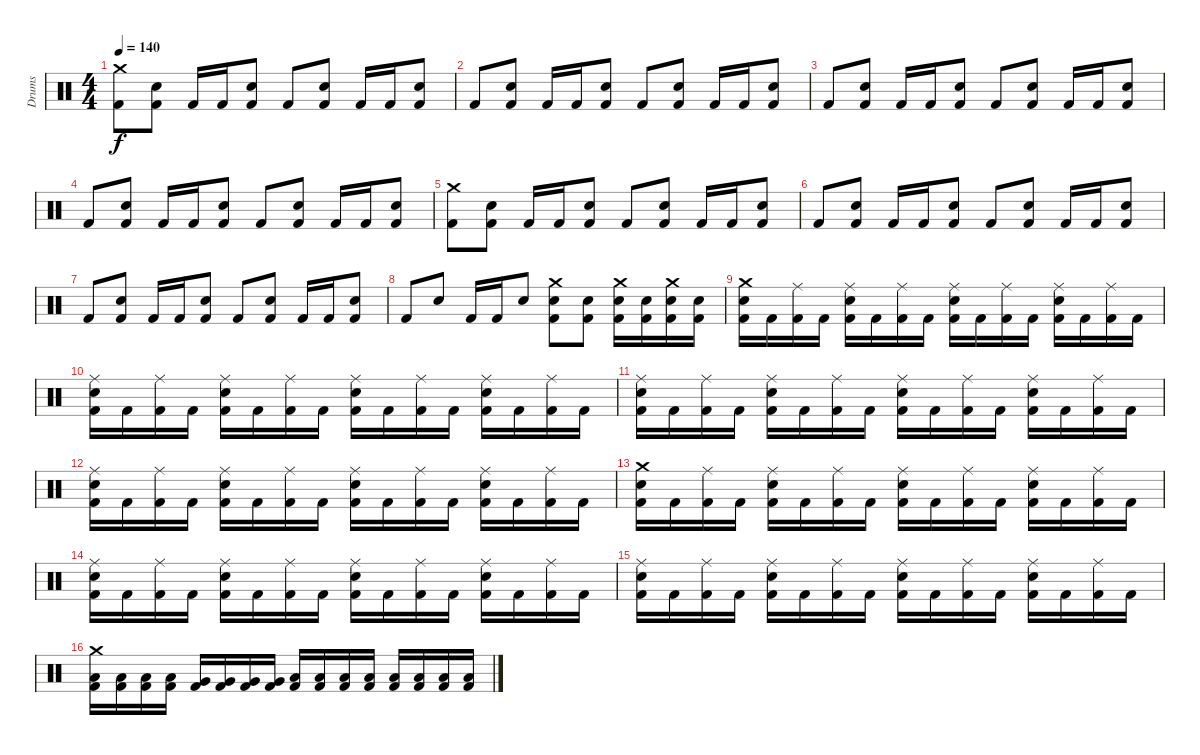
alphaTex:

\track ("Drums" "Drums") {instrument percussion}
\staff {score}
\articulation defaults
\ts (4 4)
\tempo 140
\clef neutral
\ks c
("Crash medium (hit)" "Kick (hit) 2").8{dy f} ("Electric Snare (hit)" "Kick (hit) 2").8 "Kick (hit) 2".16 "Kick (hit) 2".16 ("Electric Snare (hit)" "Kick (hit) 2").8 "Kick (hit) 2".8 ("Electric Snare (hit)" "Kick (hit) 2").8 "Kick (hit) 2".16 "Kick (hit) 2".16 ("Electric Snare (hit)" "Kick (hit) 2").8 |
"Kick (hit) 2".8 ("Electric Snare (hit)" "Kick (hit) 2").8 "Kick (hit) 2".16 "Kick (hit) 2".16 ("Electric Snare (hit)" "Kick (hit) 2").8 "Kick (hit) 2".8 ("Electric Snare (hit)" "Kick (hit) 2").8 "Kick (hit) 2".16 "Kick (hit) 2".16 ("Electric Snare (hit)" "Kick (hit) 2").8 |
"Kick (hit) 2".8 ("Electric Snare (hit)" "Kick (hit) 2").8 "Kick (hit) 2".16 "Kick (hit) 2".16 ("Electric Snare (hit)" "Kick (hit) 2").8 "Kick (hit) 2".8 ("Electric Snare (hit)" "Kick (hit) 2").8 "Kick (hit) 2".16 "Kick (hit) 2".16 ("Electric Snare (hit)" "Kick (hit) 2").8 |
"Kick (hit) 2".8 ("Electric Snare (hit)" "Kick (hit) 2").8 "Kick (hit) 2".16 "Kick (hit) 2".16 ("Electric Snare (hit)" "Kick (hit) 2").8 "Kick (hit) 2".8 ("Electric Snare (hit)" "Kick (hit) 2").8 "Kick (hit) 2".16 "Kick (hit) 2".16 ("Electric Snare (hit)" "Kick (hit) 2").8 |
("Crash medium (hit)" "Kick (hit) 2").8 ("Electric Snare (hit)" "Kick (hit) 2").8 "Kick (hit) 2".16 "Kick (hit) 2".16 ("Electric Snare (hit)" "Kick (hit) 2").8 "Kick (hit) 2".8 ("Electric Snare (hit)" "Kick (hit) 2").8 "Kick (hit) 2".16 "Kick (hit) 2".16 ("Electric Snare (hit)" "Kick (hit) 2").8 |
"Kick (hit) 2".8 ("Electric Snare (hit)" "Kick (hit) 2").8 "Kick (hit) 2".16 "Kick (hit) 2".16 ("Electric Snare (hit)" "Kick (hit) 2").8 "Kick (hit) 2".8 ("Electric Snare (hit)" "Kick (hit) 2").8 "Kick (hit) 2".16 "Kick (hit) 2".16 ("Electric Snare (hit)" "Kick (hit) 2").8 |
"Kick (hit) 2".8 ("Electric Snare (hit)" "Kick (hit) 2").8 "Kick (hit) 2".16 "Kick (hit) 2".16 ("Electric Snare (hit)" "Kick (hit) 2").8 "Kick (hit) 2".8 ("Electric Snare (hit)" "Kick (hit) 2").8 "Kick (hit) 2".16 "Kick (hit) 2".16 ("Electric Snare (hit)" "Kick (hit) 2").8 |
"Kick (hit) 2".8 "Electric Snare (hit)".8 "Kick (hit) 2".16 "Kick (hit) 2".16 "Electric Snare (hit)".8 ("Crash medium (hit)" "Electric Snare (hit)" "Kick (hit) 2").8 ("Electric Snare (hit)" "Kick (hit) 2").8 ("Crash medium (hit)" "Electric Snare (hit)" "Kick (hit) 2").16 ("Electric Snare (hit)" "Kick (hit) 2").16 ("Crash medium (hit)" "Electric Snare (hit)" "Kick (hit) 2").16 ("Electric Snare (hit)" "Kick (hit) 2").16 |
("Crash medium (hit)" "Electric Snare (hit)" "Kick (hit) 2").16 "Kick (hit) 2".16 ("Ride (middle)" "Kick (hit) 2").16 "Kick (hit) 2".16 ("Ride (middle)" "Electric Snare (hit)" "Kick (hit) 2").16 "Kick (hit) 2".16 ("Ride (middle)" "Kick (hit) 2").16 "Kick (hit) 2".16 ("Ride (middle)" "Electric Snare (hit)" "Kick (hit) 2").16 "Kick (hit) 2".16 ("Ride (middle)" "Kick (hit) 2").16 "Kick (hit) 2".16 ("Ride (middle)" "Electric Snare (hit)" "Kick (hit) 2").16 "Kick (hit) 2".16 ("Ride (middle)" "Kick (hit) 2").16 "Kick (hit) 2".16 |
("Ride (middle)" "Electric Snare (hit)" "Kick (hit) 2").16 "Kick (hit) 2".16 ("Ride (middle)" "Kick (hit) 2").16 "Kick (hit) 2".16 ("Ride (middle)" "Electric Snare (hit)" "Kick (hit) 2").16 "Kick (hit) 2".16 ("Ride (middle)" "Kick (hit) 2").16 "Kick (hit) 2".16 ("Ride (middle)" "Electric Snare (hit)" "Kick (hit) 2").16 "Kick (hit) 2".16 ("Ride (middle)" "Kick (hit) 2").16 "Kick (hit) 2".16 ("Ride (middle)" "Electric Snare (hit)" "Kick (hit) 2").16 "Kick (hit) 2".16 ("Ride (middle)" "Kick (hit) 2").16 "Kick (hit) 2".16 |
("Ride (middle)" "Electric Snare (hit)" "Kick (hit) 2").16 "Kick (hit) 2".16 ("Ride (middle)" "Kick (hit) 2").16 "Kick (hit) 2".16 ("Ride (middle)" "Electric Snare (hit)" "Kick (hit) 2").16 "Kick (hit) 2".16 ("Ride (middle)" "Kick (hit) 2").16 "Kick (hit) 2".16 ("Ride (middle)" "Electric Snare (hit)" "Kick (hit) 2").16 "Kick (hit) 2".16 ("Ride (middle)" "Kick (hit) 2").16 "Kick (hit) 2".16 ("Ride (middle)" "Electric Snare (hit)" "Kick (hit) 2").16 "Kick (hit) 2".16 ("Ride (middle)" "Kick (hit) 2").16 "Kick (hit) 2".16 |
("Ride (middle)" "Electric Snare (hit)" "Kick (hit) 2").16 "Kick (hit) 2".16 ("Ride (middle)" "Kick (hit) 2").16 "Kick (hit) 2".16 ("Ride (middle)" "Electric Snare (hit)" "Kick (hit) 2").16 "Kick (hit) 2".16 ("Ride (middle)" "Kick (hit) 2").16 "Kick (hit) 2".16 ("Ride (middle)" "Electric Snare (hit)" "Kick (hit) 2").16 "Kick (hit) 2".16 ("Ride (middle)" "Kick (hit) 2").16 "Kick (hit) 2".16 ("Ride (middle)" "Electric Snare (hit)" "Kick (hit) 2").16 "Kick (hit) 2".16 ("Ride (middle)" "Kick (hit) 2").16 "Kick (hit) 2".16 |
("Crash medium (hit)" "Electric Snare (hit)" "Kick (hit) 2").16 "Kick (hit) 2".16 ("Ride (middle)" "Kick (hit) 2").16 "Kick (hit) 2".16 ("Ride (middle)" "Electric Snare (hit)" "Kick (hit) 2").16 "Kick (hit) 2".16 ("Ride (middle)" "Kick (hit) 2").16 "Kick (hit) 2".16 ("Ride (middle)" "Electric Snare (hit)" "Kick (hit) 2").16 "Kick (hit) 2".16 ("Ride (middle)" "Kick (hit) 2").16 "Kick (hit) 2".16 ("Ride (middle)" "Electric Snare (hit)" "Kick (hit) 2").16 "Kick (hit) 2".16 ("Ride (middle)" "Kick (hit) 2").16 "Kick (hit) 2".16 |
("Ride (middle)" "Electric Snare (hit)" "Kick (hit) 2").16 "Kick (hit) 2".16 ("Ride (middle)" "Kick (hit) 2").16 "Kick (hit) 2".16 ("Ride (middle)" "Electric Snare (hit)" "Kick (hit) 2").16 "Kick (hit) 2".16 ("Ride (middle)" "Kick (hit) 2").16 "Kick (hit) 2".16 ("Ride (middle)" "Electric Snare (hit)" "Kick (hit) 2").16 "Kick (hit) 2".16 ("Ride (middle)" "Kick (hit) 2").16 "Kick (hit) 2".16 ("Ride (middle)" "Electric Snare (hit)" "Kick (hit) 2").16 "Kick (hit) 2".16 ("Ride (middle)" "Kick (hit) 2").16 "Kick (hit) 2".16 |
("Ride (middle)" "Electric Snare (hit)" "Kick (hit) 2").16 "Kick (hit) 2".16 ("Ride (middle)" "Kick (hit) 2").16 "Kick (hit) 2".16 ("Ride (middle)" "Electric Snare (hit)" "Kick (hit) 2").16 "Kick (hit) 2".16 ("Ride (middle)" "Kick (hit) 2").16 "Kick (hit) 2".16 ("Ride (middle)" "Electric Snare (hit)" "Kick (hit) 2").16 "Kick (hit) 2".16 ("Ride (middle)" "Kick (hit) 2").16 "Kick (hit) 2".16 ("Ride (middle)" "Electric Snare (hit)" "Kick (hit) 2").16 "Kick (hit) 2".16 ("Ride (middle)" "Kick (hit) 2").16 "Kick (hit) 2".16 |
("Crash medium (hit)" "Low Tom (hit)" "Kick (hit) 2").16 ("Low Tom (hit)" "Kick (hit) 2").16 ("Low Tom (hit)" "Kick (hit) 2").16 ("Low Tom (hit)" "Kick (hit) 2").16 ("Very Low Tom (hit)" "Kick (hit) 2").16 ("Very Low Tom (hit)" "Kick (hit) 2").16 ("Very Low Tom (hit)" "Kick (hit) 2").16 ("Very Low Tom (hit)" "Kick (hit) 2").16 ("Low Floor Tom (hit)" "Kick (hit) 2").16 ("Low Floor Tom (hit)" "Kick (hit) 2").16 ("Low Floor Tom (hit)" "Kick (hit) 2").16 ("Low Floor Tom (hit)" "Kick (hit) 2").16 ("Low Floor Tom (hit)" "Kick (hit) 2").16 ("Low Floor Tom (hit)" "Kick (hit) 2").16 ("Low Floor Tom (hit)" "Kick (hit) 2").16 ("Low Floor Tom (hit)" "Kick (hit) 2").16
